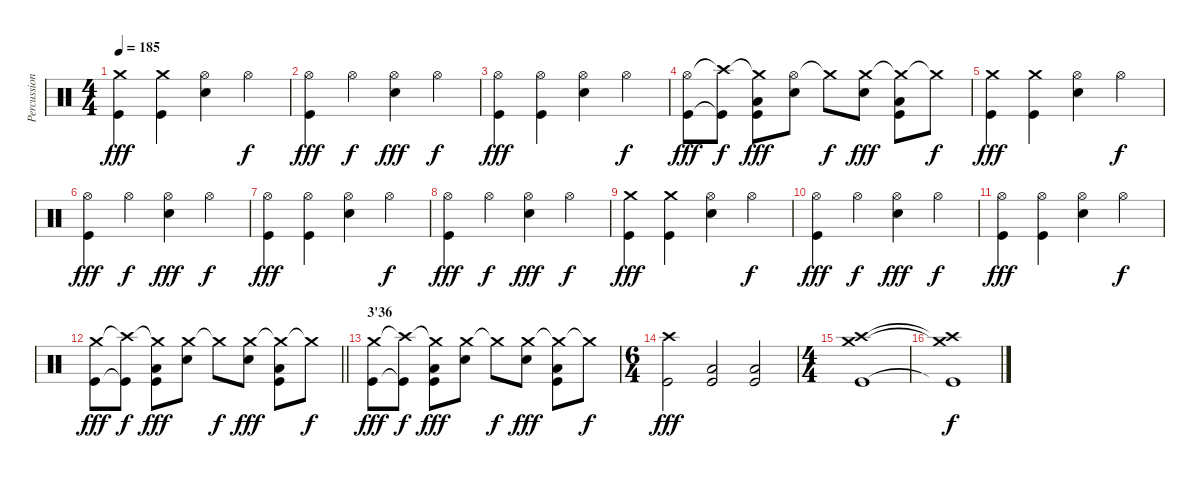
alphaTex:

\track ("Percussions" "Percussion") {instrument percussion}
\staff {score}
\articulation defaults
\ts (4 4)
\tempo 185
\clef neutral
\ks c
("Crash medium (hit)" "Kick (hit)").4{dy fff} ("Crash medium (hit)" "Kick (hit)").4 ("Hi-Hat (open)" "Electric Snare (hit)").4 "Hi-Hat (open)".4{dy f} |
("Hi-Hat (open)" "Kick (hit)").4{dy fff} "Hi-Hat (open)".4{dy f} ("Hi-Hat (open)" "Electric Snare (hit)").4{dy fff} "Hi-Hat (open)".4{dy f} |
("Hi-Hat (open)" "Kick (hit)").4{dy fff} ("Hi-Hat (open)" "Kick (hit)").4 ("Hi-Hat (open)" "Electric Snare (hit)").4 "Hi-Hat (open)".4{dy f} |
("Hi-Hat (open)" "Kick (hit)").8{dy fff} ("Crash high (hit)"{t} "Kick (hit)"{t}).8{dy f} ("Crash medium (hit)"{t} "Low Floor Tom (hit)" "Kick (hit)").8{dy fff} ("Hi-Hat (open)" "Electric Snare (hit)").8 "Crash medium (hit)"{t}.8{dy f} ("Crash medium (hit)" "Electric Snare (hit)").8{dy fff} ("Crash medium (hit)"{t} "Low Floor Tom (hit)" "Kick (hit)").8 "Crash medium (hit)"{t}.8{dy f} |
("Crash medium (hit)" "Kick (hit)").4{dy fff} ("Crash medium (hit)" "Kick (hit)").4 ("Hi-Hat (open)" "Electric Snare (hit)").4 "Hi-Hat (open)".4{dy f} |
("Hi-Hat (open)" "Kick (hit)").4{dy fff} "Hi-Hat (open)".4{dy f} ("Hi-Hat (open)" "Electric Snare (hit)").4{dy fff} "Hi-Hat (open)".4{dy f} |
("Hi-Hat (open)" "Kick (hit)").4{dy fff} ("Hi-Hat (open)" "Kick (hit)").4 ("Hi-Hat (open)" "Electric Snare (hit)").4 "Hi-Hat (open)".4{dy f} |
("Hi-Hat (open)" "Kick (hit)").4{dy fff} "Hi-Hat (open)".4{dy f} ("Hi-Hat (open)" "Electric Snare (hit)").4{dy fff} "Hi-Hat (open)".4{dy f} |
("Crash medium (hit)" "Kick (hit)").4{dy fff} ("Crash medium (hit)" "Kick (hit)").4 ("Hi-Hat (open)" "Electric Snare (hit)").4 "Hi-Hat (open)".4{dy f} |
("Hi-Hat (open)" "Kick (hit)").4{dy fff} "Hi-Hat (open)".4{dy f} ("Hi-Hat (open)" "Electric Snare (hit)").4{dy fff} "Hi-Hat (open)".4{dy f} |
("Hi-Hat (open)" "Kick (hit)").4{dy fff} ("Hi-Hat (open)" "Kick (hit)").4 ("Hi-Hat (open)" "Electric Snare (hit)").4 "Hi-Hat (open)".4{dy f} |
\barLineRight lightlight
("Crash medium (hit)" "Kick (hit)").8{dy fff} ("Crash high (hit)"{t} "Kick (hit)"{t}).8{dy f} ("Crash medium (hit)"{t} "Low Floor Tom (hit)" "Kick (hit)").8{dy fff} ("Crash medium (hit)" "Electric Snare (hit)").8 "Crash medium (hit)"{t}.8{dy f} ("Crash medium (hit)" "Electric Snare (hit)").8{dy fff} ("Crash medium (hit)"{t} "Low Floor Tom (hit)" "Kick (hit)").8 "Crash medium (hit)"{t}.8{dy f} |
\section ("" "3'36")
("Crash medium (hit)" "Kick (hit)").8{dy fff} ("Crash high (hit)"{t} "Kick (hit)"{t}).8{dy f} ("Crash medium (hit)"{t} "Low Floor Tom (hit)" "Kick (hit)").8{dy fff} ("Crash medium (hit)" "Electric Snare (hit)").8 "Crash medium (hit)"{t}.8{dy f} ("Crash medium (hit)" "Electric Snare (hit)").8{dy fff} ("Crash medium (hit)"{t} "Low Floor Tom (hit)" "Kick (hit)").8 "Crash medium (hit)"{t}.8{dy f} |
\ts (6 4)
("Crash high (hit)" "Kick (hit)").2{dy fff} ("Low Floor Tom (hit)" "Kick (hit)").2 ("Low Floor Tom (hit)" "Kick (hit)").2 |
\ts (4 4)
("Crash high (hit)" "Crash medium (hit)" "Kick (hit)").1{volume 0} |
("Crash high (hit)"{t} "Crash medium (hit)"{t} "Kick (hit)"{t}).1{dy f}
